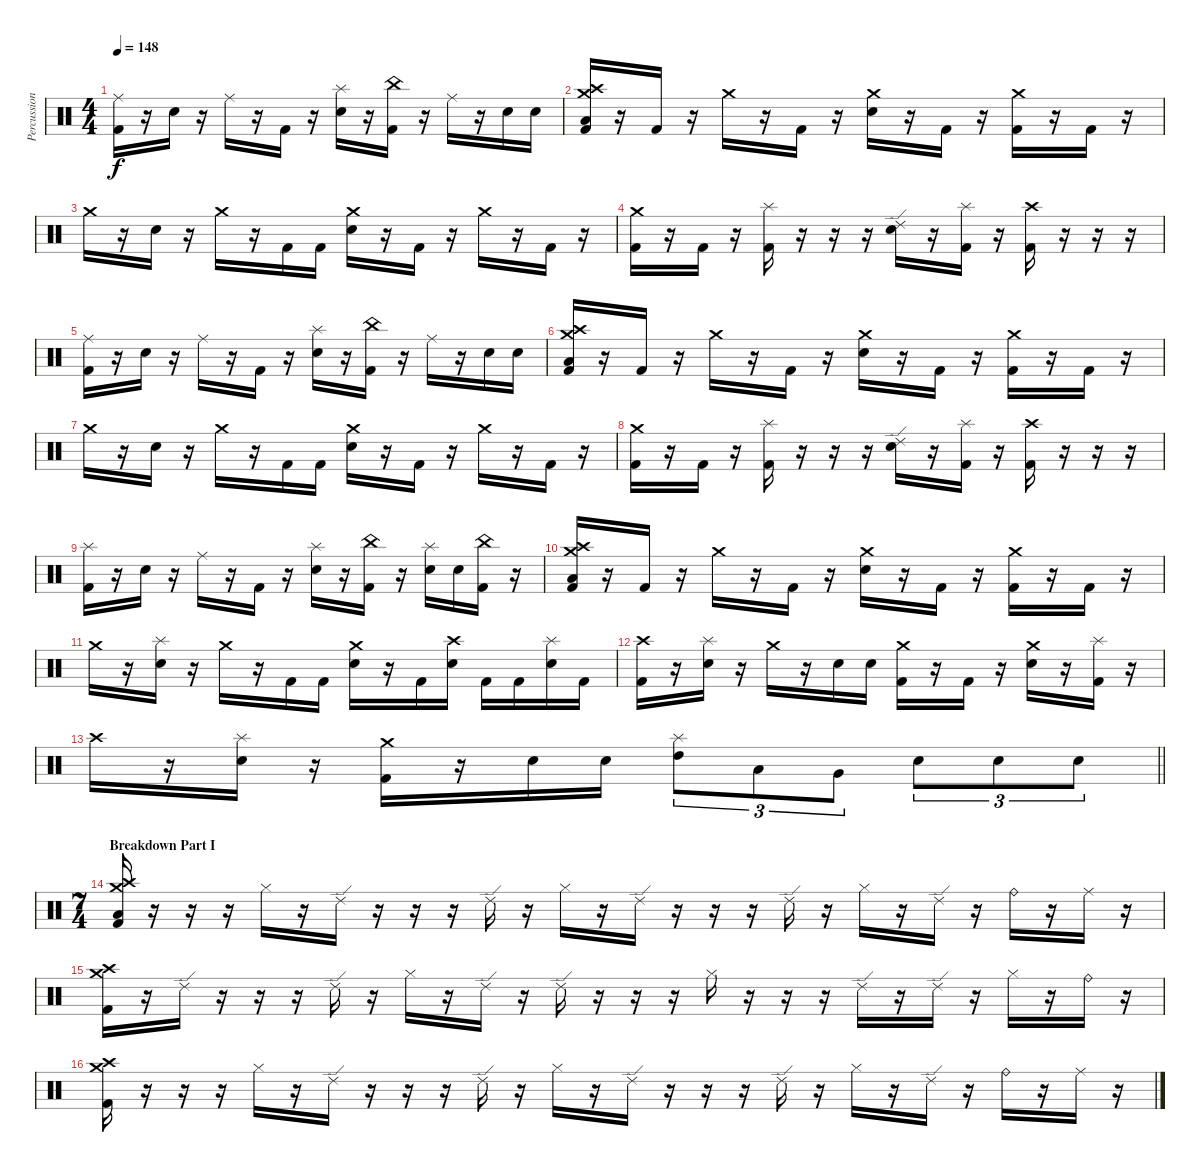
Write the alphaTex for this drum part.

\track ("Percussion" "Percussion") {instrument percussion}
\staff {score}
\articulation defaults
\ts (4 4)
\tempo 148
\clef neutral
\ks c
("Ride (middle)" "Kick (hit) 2").16{dy f} r.16 "Electric Snare (hit)".16 r.16 "Ride (middle)".16 r.16 "Kick (hit) 2".16 r.16 ("Splash (hit)" "Electric Snare (hit)").16 r.16 ("China (hit)" "Kick (hit) 2").16 r.16 "Ride (middle)".16 r.16 "Electric Snare (hit)".16 "Electric Snare (hit)".16 |
("Crash high (hit)" "Crash medium (hit)" "Low Floor Tom (hit)" "Kick (hit) 2").16 r.16 "Kick (hit) 2".16 r.16 "Crash medium (hit)".16 r.16 "Kick (hit) 2".16 r.16 ("Crash medium (hit)" "Electric Snare (hit)").16 r.16 "Kick (hit) 2".16 r.16 ("Crash medium (hit)" "Kick (hit) 2").16 r.16 "Kick (hit) 2".16 r.16 |
"Crash medium (hit)".16 r.16 "Electric Snare (hit)".16 r.16 "Crash medium (hit)".16 r.16 "Kick (hit) 2".16 "Kick (hit) 2".16 ("Crash medium (hit)" "Electric Snare (hit)").16 r.16 "Kick (hit) 2".16 r.16 "Crash medium (hit)".16 r.16 "Kick (hit) 2".16 r.16 |
("Crash medium (hit)" "Kick (hit) 2").16 r.16 "Kick (hit) 2".16 r.16 ("Splash (hit)" "Kick (hit) 2").16 r.16 r.16 r.16 ("Ride (edge) 2" "Electric Snare (hit)").16 r.16 ("Splash (hit)" "Kick (hit) 2").16 r.16 ("Crash high (hit)" "Kick (hit) 2").16 r.16 r.16 r.16 |
("Ride (middle)" "Kick (hit) 2").16 r.16 "Electric Snare (hit)".16 r.16 "Ride (middle)".16 r.16 "Kick (hit) 2".16 r.16 ("Splash (hit)" "Electric Snare (hit)").16 r.16 ("China (hit)" "Kick (hit) 2").16 r.16 "Ride (middle)".16 r.16 "Electric Snare (hit)".16 "Electric Snare (hit)".16 |
("Crash high (hit)" "Crash medium (hit)" "Low Floor Tom (hit)" "Kick (hit) 2").16 r.16 "Kick (hit) 2".16 r.16 "Crash medium (hit)".16 r.16 "Kick (hit) 2".16 r.16 ("Crash medium (hit)" "Electric Snare (hit)").16 r.16 "Kick (hit) 2".16 r.16 ("Crash medium (hit)" "Kick (hit) 2").16 r.16 "Kick (hit) 2".16 r.16 |
"Crash medium (hit)".16 r.16 "Electric Snare (hit)".16 r.16 "Crash medium (hit)".16 r.16 "Kick (hit) 2".16 "Kick (hit) 2".16 ("Crash medium (hit)" "Electric Snare (hit)").16 r.16 "Kick (hit) 2".16 r.16 "Crash medium (hit)".16 r.16 "Kick (hit) 2".16 r.16 |
("Crash medium (hit)" "Kick (hit) 2").16 r.16 "Kick (hit) 2".16 r.16 ("Splash (hit)" "Kick (hit) 2").16 r.16 r.16 r.16 ("Ride (edge) 2" "Electric Snare (hit)").16 r.16 ("Splash (hit)" "Kick (hit) 2").16 r.16 ("Crash high (hit)" "Kick (hit) 2").16 r.16 r.16 r.16 |
("Splash (hit)" "Kick (hit) 2").16 r.16 "Electric Snare (hit)".16 r.16 "Ride (middle)".16 r.16 "Kick (hit) 2".16 r.16 ("Splash (hit)" "Electric Snare (hit)").16 r.16 ("China (hit)" "Kick (hit) 2").16 r.16 ("Splash (hit)" "Electric Snare (hit)").16 "Electric Snare (hit)".16 ("China (hit)" "Kick (hit) 2").16 r.16 |
("Crash high (hit)" "Crash medium (hit)" "Low Floor Tom (hit)" "Kick (hit) 2").16 r.16 "Kick (hit) 2".16 r.16 "Crash medium (hit)".16 r.16 "Kick (hit) 2".16 r.16 ("Crash medium (hit)" "Electric Snare (hit)").16 r.16 "Kick (hit) 2".16 r.16 ("Crash medium (hit)" "Kick (hit) 2").16 r.16 "Kick (hit) 2".16 r.16 |
"Crash medium (hit)".16 r.16 ("Splash (hit)" "Electric Snare (hit)").16 r.16 "Crash medium (hit)".16 r.16 "Kick (hit) 2".16 "Kick (hit) 2".16 ("Crash medium (hit)" "Electric Snare (hit)").16 r.16 "Kick (hit) 2".16 ("Crash high (hit)" "Electric Snare (hit)").16 "Kick (hit) 2".16 "Kick (hit) 2".16 ("Splash (hit)" "Electric Snare (hit)").16 "Kick (hit) 2".16 |
("Crash high (hit)" "Kick (hit) 2").16 r.16 ("Splash (hit)" "Electric Snare (hit)").16 r.16 "Crash medium (hit)".16 r.16 "Electric Snare (hit)".16 "Electric Snare (hit)".16 ("Crash medium (hit)" "Kick (hit) 2").16 r.16 "Kick (hit) 2".16 r.16 ("Crash medium (hit)" "Electric Snare (hit)").16 r.16 ("Splash (hit)" "Kick (hit) 2").16 r.16 |
\barLineRight lightlight "Crash high (hit)".16
r.16 ("Splash (hit)" "Electric Snare (hit)").16 r.16 ("Crash medium (hit)" "Kick (hit) 2").16 r.16 "Electric Snare (hit)".16 "Electric Snare (hit)".16 ("Splash (hit)" "High Tom (hit)").8{tu (3 2)} "Low Tom (hit)".8{tu (3 2)} "Very Low Tom (hit)".8{tu (3 2)} "Electric Snare (hit)".8{tu (3 2)} "Electric Snare (hit)".8{tu (3 2)} "Electric Snare (hit)".8{tu (3 2)} |
\ts (7 4)
\section ("" "Breakdown Part I")
("Crash high (hit)" "Crash medium (hit)" "Low Floor Tom (hit)" "Kick (hit) 2").16 r.16 r.16 r.16 "Hi-Hat (closed)".16 r.16 "Ride (edge) 2".16 r.16 r.16 r.16 "Ride (edge) 2".16 r.16 "Hi-Hat (closed)".16 r.16 "Ride (edge) 2".16 r.16 r.16 r.16 "Ride (edge) 2".16 r.16 "Hi-Hat (closed)".16 r.16 "Ride (edge) 2".16 r.16 "Ride (bell)".16 r.16 "Ride (middle)".16 r.16 |
("Crash high (hit)" "Crash medium (hit)" "Kick (hit) 2").16 r.16 "Ride (edge) 2".16 r.16 r.16 r.16 "Ride (edge) 2".16 r.16 "Hi-Hat (closed)".16 r.16 "Ride (edge) 2".16 r.16 "Ride (edge) 2".16 r.16 r.16 r.16 "Hi-Hat (closed)".16 r.16 r.16 r.16 "Ride (edge) 2".16 r.16 "Ride (edge) 2".16 r.16 "Hi-Hat (closed)".16 r.16 "Ride (bell)".16 r.16 |
("Crash high (hit)" "Crash medium (hit)" "Kick (hit) 2").16 r.16 r.16 r.16 "Hi-Hat (closed)".16 r.16 "Ride (edge) 2".16 r.16 r.16 r.16 "Ride (edge) 2".16 r.16 "Hi-Hat (closed)".16 r.16 "Ride (edge) 2".16 r.16 r.16 r.16 "Ride (edge) 2".16 r.16 "Hi-Hat (closed)".16 r.16 "Ride (edge) 2".16 r.16 "Ride (bell)".16 r.16 "Ride (middle)".16 r.16
